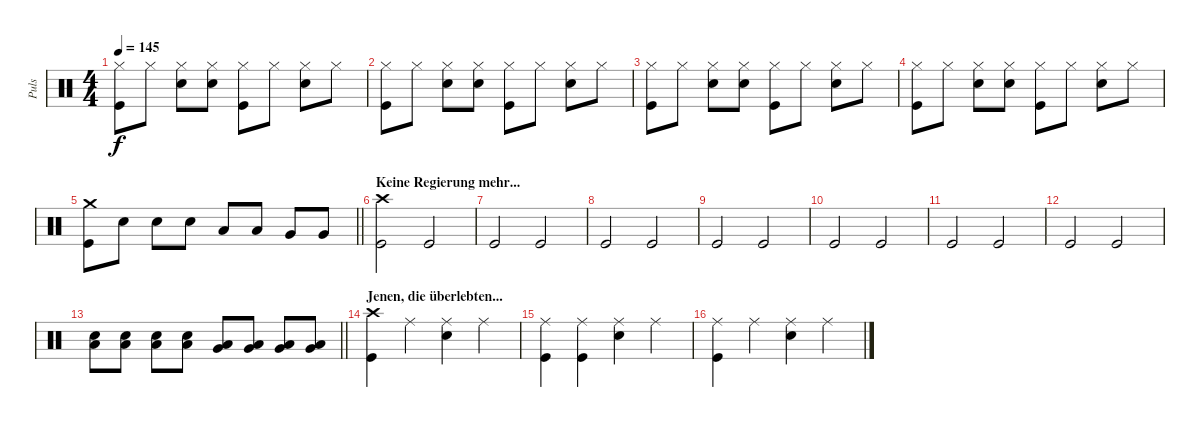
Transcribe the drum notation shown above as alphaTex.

\track ("Puls" "Puls") {instrument percussion}
\staff {score}
\articulation defaults
\ts (4 4)
\tempo 145
\clef neutral
\ks c
("Hi-Hat (closed)" "Kick (hit)").8{dy f} "Hi-Hat (closed)".8 ("Hi-Hat (closed)" "Snare (hit) 2").8 ("Hi-Hat (closed)" "Snare (hit) 2").8 ("Hi-Hat (closed)" "Kick (hit)").8 "Hi-Hat (closed)".8 ("Hi-Hat (closed)" "Snare (hit) 2").8 "Hi-Hat (closed)".8 |
("Hi-Hat (closed)" "Kick (hit)").8 "Hi-Hat (closed)".8 ("Hi-Hat (closed)" "Snare (hit) 2").8 ("Hi-Hat (closed)" "Snare (hit) 2").8 ("Hi-Hat (closed)" "Kick (hit)").8 "Hi-Hat (closed)".8 ("Hi-Hat (closed)" "Snare (hit) 2").8 "Hi-Hat (closed)".8 |
("Hi-Hat (closed)" "Kick (hit)").8 "Hi-Hat (closed)".8 ("Hi-Hat (closed)" "Snare (hit) 2").8 ("Hi-Hat (closed)" "Snare (hit) 2").8 ("Hi-Hat (closed)" "Kick (hit)").8 "Hi-Hat (closed)".8 ("Hi-Hat (closed)" "Snare (hit) 2").8 "Hi-Hat (closed)".8 |
("Hi-Hat (closed)" "Kick (hit)").8 "Hi-Hat (closed)".8 ("Hi-Hat (closed)" "Snare (hit) 2").8 ("Hi-Hat (closed)" "Snare (hit) 2").8 ("Hi-Hat (closed)" "Kick (hit)").8 "Hi-Hat (closed)".8 ("Hi-Hat (closed)" "Snare (hit) 2").8 "Hi-Hat (closed)".8 |
\barLineRight lightlight
("Crash medium (hit)" "Kick (hit)").8 "Snare (hit) 2".8 "Snare (hit) 2".8 "Snare (hit) 2".8 "Low Tom (hit)".8 "Low Tom (hit)".8 "Very Low Tom (hit)".8 "Very Low Tom (hit)".8 |
\section ("" "Keine Regierung mehr...")
("Crash high (hit)" "Kick (hit)").2 "Kick (hit)".2 |
"Kick (hit)".2 "Kick (hit)".2 |
"Kick (hit)".2 "Kick (hit)".2 |
"Kick (hit)".2 "Kick (hit)".2 |
"Kick (hit)".2 "Kick (hit)".2 |
"Kick (hit)".2 "Kick (hit)".2 |
"Kick (hit)".2 "Kick (hit)".2 |
\barLineRight lightlight
("Snare (hit) 2" "Low Tom (hit)").8 ("Snare (hit) 2" "Low Tom (hit)").8 ("Snare (hit) 2" "Low Tom (hit)").8 ("Snare (hit) 2" "Low Tom (hit)").8 ("Low Tom (hit)" "Very Low Tom (hit)").8 ("Low Tom (hit)" "Very Low Tom (hit)").8 ("Low Tom (hit)" "Very Low Tom (hit)").8 ("Low Tom (hit)" "Very Low Tom (hit)").8 |
\section ("" "Jenen, die überlebten...")
("Crash high (hit)" "Kick (hit)").4 "Ride (middle)".4 ("Ride (middle)" "Snare (hit) 2").4 "Ride (middle)".4 |
("Ride (middle)" "Kick (hit)").4 ("Ride (middle)" "Kick (hit)").4 ("Ride (middle)" "Snare (hit) 2").4 "Ride (middle)".4 |
("Ride (middle)" "Kick (hit)").4 "Ride (middle)".4 ("Ride (middle)" "Snare (hit) 2").4 "Ride (middle)".4
